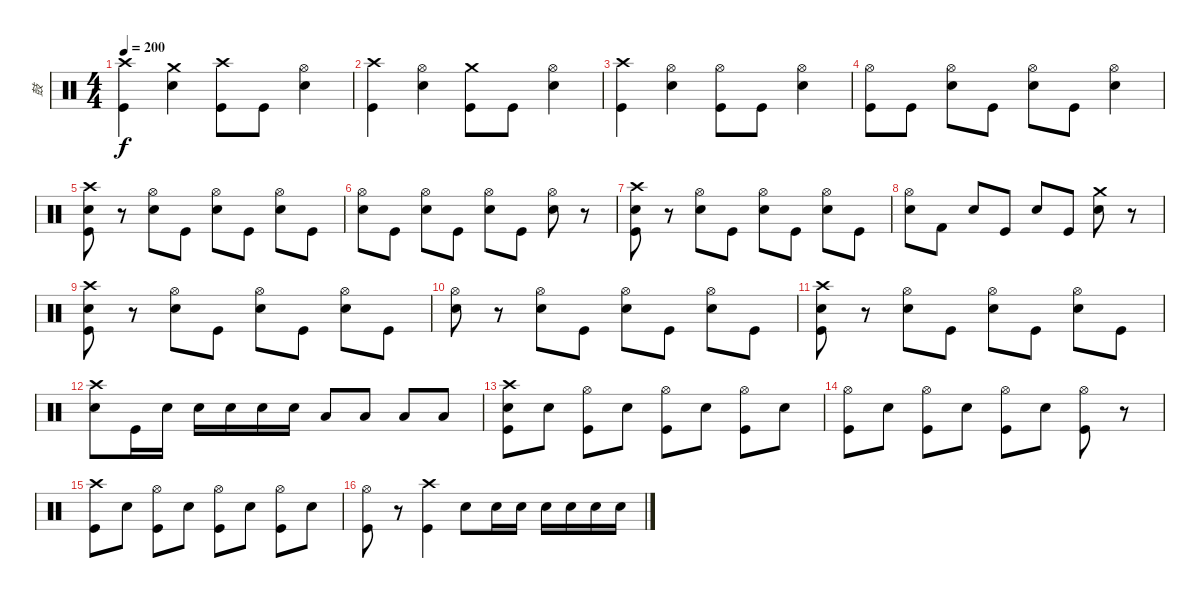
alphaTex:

\track ("鼓" "鼓") {instrument percussion}
\staff {score}
\articulation defaults
\ts (4 4)
\tempo 200
\clef neutral
\ks c
("Crash high (hit)" "Kick (hit)").4{dy f} ("Crash medium (hit)" "Snare (hit) 2").4 ("Crash high (hit)" "Kick (hit)").8 "Kick (hit)".8 ("Hi-Hat (open)" "Snare (hit) 2").4 |
("Crash high (hit)" "Kick (hit)").4 ("Hi-Hat (open)" "Snare (hit) 2").4 ("Crash medium (hit)" "Kick (hit)").8 "Kick (hit)".8 ("Hi-Hat (open)" "Snare (hit) 2").4 |
("Crash high (hit)" "Kick (hit)").4 ("Hi-Hat (open)" "Snare (hit) 2").4 ("Hi-Hat (open)" "Kick (hit)").8 "Kick (hit)".8 ("Hi-Hat (open)" "Snare (hit) 2").4 |
("Hi-Hat (open)" "Kick (hit)").8 "Kick (hit)".8 ("Hi-Hat (open)" "Snare (hit) 2").8 "Kick (hit)".8 ("Hi-Hat (open)" "Snare (hit) 2").8 "Kick (hit)".8 ("Hi-Hat (open)" "Snare (hit) 2").4 |
("Crash high (hit)" "Snare (hit) 2" "Kick (hit)").8 r.8 ("Hi-Hat (open)" "Snare (hit) 2").8 "Kick (hit)".8 ("Hi-Hat (open)" "Snare (hit) 2").8 "Kick (hit)".8 ("Hi-Hat (open)" "Snare (hit) 2").8 "Kick (hit)".8 |
("Hi-Hat (open)" "Snare (hit) 2").8 "Kick (hit)".8 ("Hi-Hat (open)" "Snare (hit) 2").8 "Kick (hit)".8 ("Hi-Hat (open)" "Snare (hit) 2").8 "Kick (hit)".8 ("Hi-Hat (open)" "Snare (hit) 2").8 r.8 |
("Crash high (hit)" "Snare (hit) 2" "Kick (hit)").8 r.8 ("Hi-Hat (open)" "Snare (hit) 2").8 "Kick (hit)".8 ("Hi-Hat (open)" "Snare (hit) 2").8 "Kick (hit)".8 ("Hi-Hat (open)" "Snare (hit) 2").8 "Kick (hit)".8 |
("Hi-Hat (open)" "Snare (hit) 2").8 "Kick (hit) 2".8 "Snare (hit) 2".8 "Kick (hit)".8 "Snare (hit) 2".8 "Kick (hit)".8 ("Crash medium (hit)" "Snare (hit) 2").8 r.8 |
("Crash high (hit)" "Snare (hit) 2" "Kick (hit)").8 r.8 ("Hi-Hat (open)" "Snare (hit) 2").8 "Kick (hit)".8 ("Hi-Hat (open)" "Snare (hit) 2").8 "Kick (hit)".8 ("Hi-Hat (open)" "Snare (hit) 2").8 "Kick (hit)".8 |
("Hi-Hat (open)" "Snare (hit) 2").8 r.8 ("Hi-Hat (open)" "Snare (hit) 2").8 "Kick (hit)".8 ("Hi-Hat (open)" "Snare (hit) 2").8 "Kick (hit)".8 ("Hi-Hat (open)" "Snare (hit) 2").8 "Kick (hit)".8 |
("Crash high (hit)" "Snare (hit) 2" "Kick (hit)").8 r.8 ("Hi-Hat (open)" "Snare (hit) 2").8 "Kick (hit)".8 ("Hi-Hat (open)" "Snare (hit) 2").8 "Kick (hit)".8 ("Hi-Hat (open)" "Snare (hit) 2").8 "Kick (hit)".8 |
("Crash high (hit)" "Snare (hit) 2").8 "Kick (hit)".16 "Snare (hit) 2".16 "Snare (hit) 2".16 "Snare (hit) 2".16 "Snare (hit) 2".16 "Snare (hit) 2".16 "Low Tom (hit)".8 "Low Tom (hit)".8 "Low Floor Tom (hit)".8 "Low Floor Tom (hit)".8 |
("Crash high (hit)" "Snare (hit) 2" "Kick (hit)").8 "Snare (hit) 2".8 ("Hi-Hat (open)" "Kick (hit)").8 "Snare (hit) 2".8 ("Hi-Hat (open)" "Kick (hit)").8 "Snare (hit) 2".8 ("Hi-Hat (open)" "Kick (hit)").8 "Snare (hit) 2".8 |
("Hi-Hat (open)" "Kick (hit)").8 "Snare (hit) 2".8 ("Hi-Hat (open)" "Kick (hit)").8 "Snare (hit) 2".8 ("Hi-Hat (open)" "Kick (hit)").8 "Snare (hit) 2".8 ("Hi-Hat (open)" "Kick (hit)").8 r.8 |
("Crash high (hit)" "Kick (hit)").8 "Snare (hit) 2".8 ("Hi-Hat (open)" "Kick (hit)").8 "Snare (hit) 2".8 ("Hi-Hat (open)" "Kick (hit)").8 "Snare (hit) 2".8 ("Hi-Hat (open)" "Kick (hit)").8 "Snare (hit) 2".8 |
("Hi-Hat (open)" "Kick (hit)").8 r.8 ("Crash high (hit)" "Kick (hit)").4 "Snare (hit) 2".8 "Snare (hit) 2".16 "Snare (hit) 2".16 "Snare (hit) 2".16 "Snare (hit) 2".16 "Snare (hit) 2".16 "Snare (hit) 2".16
